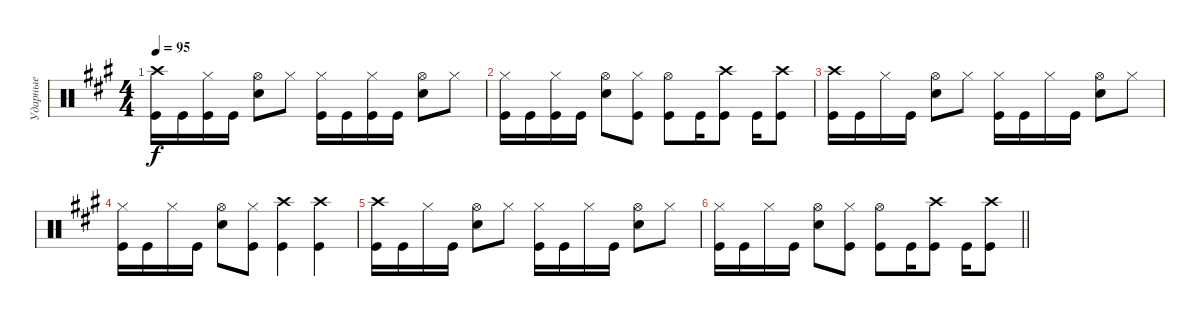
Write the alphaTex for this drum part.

\track ("Ударные" "Ударные") {instrument percussion}
\staff {score}
\articulation defaults
\ts (4 4)
\tempo 95
\clef neutral
\ks a
("Crash high (hit)" "Kick (hit)").16{dy f} "Kick (hit)".16 ("Hi-Hat (closed)" "Kick (hit)").16 "Kick (hit)".16 ("Hi-Hat (open)" "Snare (hit) 2").8 "Hi-Hat (closed)".8 ("Hi-Hat (closed)" "Kick (hit)").16 "Kick (hit)".16 ("Hi-Hat (closed)" "Kick (hit)").16 "Kick (hit)".16 ("Hi-Hat (open)" "Snare (hit) 2").8 "Hi-Hat (closed)".8 |
("Hi-Hat (closed)" "Kick (hit)").16 "Kick (hit)".16 ("Hi-Hat (closed)" "Kick (hit)").16 "Kick (hit)".16 ("Hi-Hat (open)" "Snare (hit) 2").8 ("Hi-Hat (closed)" "Kick (hit)").8 ("Hi-Hat (open)" "Kick (hit)").8 "Kick (hit)".16 ("Crash high (hit)" "Kick (hit)").8 "Kick (hit)".16 ("Crash high (hit)" "Kick (hit)").8 |
("Crash high (hit)" "Kick (hit)").16 "Kick (hit)".16 "Hi-Hat (closed)".16 "Kick (hit)".16 ("Hi-Hat (open)" "Snare (hit) 2").8 "Hi-Hat (closed)".8 ("Hi-Hat (closed)" "Kick (hit)").16 "Kick (hit)".16 "Hi-Hat (closed)".16 "Kick (hit)".16 ("Hi-Hat (open)" "Snare (hit) 2").8 "Hi-Hat (closed)".8 |
("Hi-Hat (closed)" "Kick (hit)").16 "Kick (hit)".16 "Hi-Hat (closed)".16 "Kick (hit)".16 ("Hi-Hat (open)" "Snare (hit) 2").8 ("Hi-Hat (closed)" "Kick (hit)").8 ("Crash high (hit)" "Kick (hit)").4 ("Crash high (hit)" "Kick (hit)").4 |
("Crash high (hit)" "Kick (hit)").16 "Kick (hit)".16 "Hi-Hat (closed)".16 "Kick (hit)".16 ("Hi-Hat (open)" "Snare (hit) 2").8 "Hi-Hat (closed)".8 ("Hi-Hat (closed)" "Kick (hit)").16 "Kick (hit)".16 "Hi-Hat (closed)".16 "Kick (hit)".16 ("Hi-Hat (open)" "Snare (hit) 2").8 "Hi-Hat (closed)".8 |
\barLineRight lightlight
("Hi-Hat (closed)" "Kick (hit)").16 "Kick (hit)".16 "Hi-Hat (closed)".16 "Kick (hit)".16 ("Hi-Hat (open)" "Snare (hit) 2").8 ("Hi-Hat (closed)" "Kick (hit)").8 ("Hi-Hat (open)" "Kick (hit)").8 "Kick (hit)".16 ("Crash high (hit)" "Kick (hit)").8 "Kick (hit)".16 ("Crash high (hit)" "Kick (hit)").8
